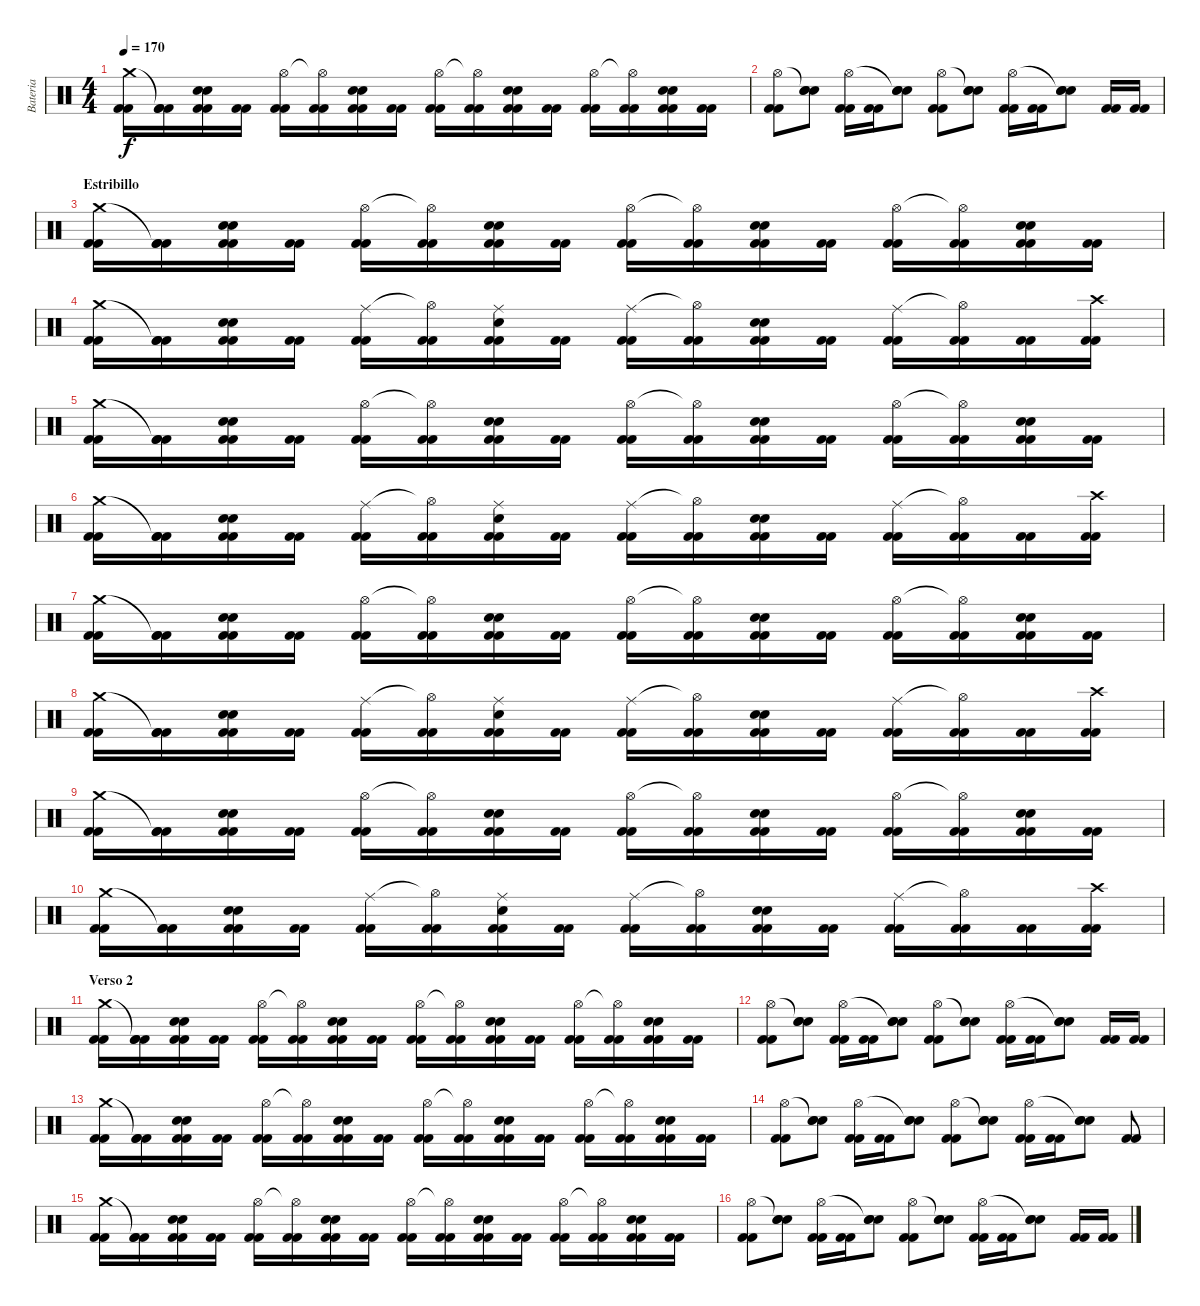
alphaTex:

\track ("Bateria" "Bateria") {instrument percussion}
\staff {score}
\articulation defaults
\ts (4 4)
\tempo 170
\clef neutral
\ks c
("Kick (hit) 2" "Kick (hit) 2" "Crash medium (hit)").16{dy f} ("Kick (hit) 2" "Kick (hit) 2" "Kick (hit) 2"{t}).16 ("Kick (hit) 2" "Kick (hit) 2" "Electric Snare (hit)" "Electric Snare (hit)").16 ("Kick (hit) 2" "Kick (hit) 2").16 ("Kick (hit) 2" "Kick (hit) 2" "Hi-Hat (open)").16 ("Kick (hit) 2" "Kick (hit) 2" "Hi-Hat (open)"{t}).16 ("Kick (hit) 2" "Kick (hit) 2" "Electric Snare (hit)" "Electric Snare (hit)").16 ("Kick (hit) 2" "Kick (hit) 2").16 ("Kick (hit) 2" "Kick (hit) 2" "Hi-Hat (open)").16 ("Kick (hit) 2" "Kick (hit) 2" "Hi-Hat (open)"{t}).16 ("Kick (hit) 2" "Kick (hit) 2" "Electric Snare (hit)" "Electric Snare (hit)").16 ("Kick (hit) 2" "Kick (hit) 2").16 ("Kick (hit) 2" "Kick (hit) 2" "Hi-Hat (open)").16 ("Kick (hit) 2" "Kick (hit) 2" "Hi-Hat (open)"{t}).16 ("Kick (hit) 2" "Kick (hit) 2" "Electric Snare (hit)" "Electric Snare (hit)").16 ("Kick (hit) 2" "Kick (hit) 2").16 |
("Kick (hit) 2" "Kick (hit) 2" "Hi-Hat (open)").8 ("Electric Snare (hit)" "Electric Snare (hit)" "Snare (hit)"{t}).8 ("Kick (hit) 2" "Kick (hit) 2" "Hi-Hat (open)").16 ("Kick (hit) 2" "Kick (hit) 2").16 ("Electric Snare (hit)" "Electric Snare (hit)" "Snare (hit)"{t}).8 ("Kick (hit) 2" "Kick (hit) 2" "Hi-Hat (open)").8 ("Electric Snare (hit)" "Electric Snare (hit)" "Snare (hit)"{t}).8 ("Kick (hit) 2" "Kick (hit) 2" "Hi-Hat (open)").16 ("Kick (hit) 2" "Kick (hit) 2").16 ("Electric Snare (hit)" "Electric Snare (hit)" "Snare (hit)"{t}).8 ("Kick (hit) 2" "Kick (hit) 2").16 ("Kick (hit) 2" "Kick (hit) 2").16 |
\section ("" "Estribillo")
("Kick (hit) 2" "Kick (hit) 2" "Crash medium (hit)").16 ("Kick (hit) 2" "Kick (hit) 2" "Kick (hit) 2"{t}).16 ("Kick (hit) 2" "Kick (hit) 2" "Electric Snare (hit)" "Electric Snare (hit)").16 ("Kick (hit) 2" "Kick (hit) 2").16 ("Kick (hit) 2" "Kick (hit) 2" "Hi-Hat (open)").16 ("Kick (hit) 2" "Kick (hit) 2" "Hi-Hat (open)"{t}).16 ("Kick (hit) 2" "Kick (hit) 2" "Electric Snare (hit)" "Electric Snare (hit)").16 ("Kick (hit) 2" "Kick (hit) 2").16 ("Kick (hit) 2" "Kick (hit) 2" "Hi-Hat (open)").16 ("Kick (hit) 2" "Kick (hit) 2" "Hi-Hat (open)"{t}).16 ("Kick (hit) 2" "Kick (hit) 2" "Electric Snare (hit)" "Electric Snare (hit)").16 ("Kick (hit) 2" "Kick (hit) 2").16 ("Kick (hit) 2" "Kick (hit) 2" "Hi-Hat (open)").16 ("Kick (hit) 2" "Kick (hit) 2" "Hi-Hat (open)"{t}).16 ("Kick (hit) 2" "Kick (hit) 2" "Electric Snare (hit)" "Electric Snare (hit)").16 ("Kick (hit) 2" "Kick (hit) 2").16 |
("Kick (hit) 2" "Kick (hit) 2" "Crash medium (hit)").16 ("Kick (hit) 2" "Kick (hit) 2" "Kick (hit) 2"{t}).16 ("Kick (hit) 2" "Kick (hit) 2" "Electric Snare (hit)" "Electric Snare (hit)").16 ("Kick (hit) 2" "Kick (hit) 2").16 ("Kick (hit) 2" "Kick (hit) 2" "Ride (middle)").16 ("Kick (hit) 2" "Kick (hit) 2" "Hi-Hat (open)"{t}).16 ("Kick (hit) 2" "Kick (hit) 2" "Electric Snare (hit)" "Ride (middle)").16 ("Kick (hit) 2" "Kick (hit) 2").16 ("Kick (hit) 2" "Kick (hit) 2" "Ride (middle)").16 ("Kick (hit) 2" "Kick (hit) 2" "Hi-Hat (open)"{t}).16 ("Kick (hit) 2" "Kick (hit) 2" "Electric Snare (hit)" "Electric Snare (hit)").16 ("Kick (hit) 2" "Kick (hit) 2").16 ("Kick (hit) 2" "Kick (hit) 2" "Ride (middle)").16 ("Kick (hit) 2" "Kick (hit) 2" "Hi-Hat (open)"{t}).16 ("Kick (hit) 2" "Kick (hit) 2").16 ("Kick (hit) 2" "Kick (hit) 2" "Crash high (hit)").16 |
("Kick (hit) 2" "Kick (hit) 2" "Crash medium (hit)").16 ("Kick (hit) 2" "Kick (hit) 2" "Kick (hit) 2"{t}).16 ("Kick (hit) 2" "Kick (hit) 2" "Electric Snare (hit)" "Electric Snare (hit)").16 ("Kick (hit) 2" "Kick (hit) 2").16 ("Kick (hit) 2" "Kick (hit) 2" "Hi-Hat (open)").16 ("Kick (hit) 2" "Kick (hit) 2" "Hi-Hat (open)"{t}).16 ("Kick (hit) 2" "Kick (hit) 2" "Electric Snare (hit)" "Electric Snare (hit)").16 ("Kick (hit) 2" "Kick (hit) 2").16 ("Kick (hit) 2" "Kick (hit) 2" "Hi-Hat (open)").16 ("Kick (hit) 2" "Kick (hit) 2" "Hi-Hat (open)"{t}).16 ("Kick (hit) 2" "Kick (hit) 2" "Electric Snare (hit)" "Electric Snare (hit)").16 ("Kick (hit) 2" "Kick (hit) 2").16 ("Kick (hit) 2" "Kick (hit) 2" "Hi-Hat (open)").16 ("Kick (hit) 2" "Kick (hit) 2" "Hi-Hat (open)"{t}).16 ("Kick (hit) 2" "Kick (hit) 2" "Electric Snare (hit)" "Electric Snare (hit)").16 ("Kick (hit) 2" "Kick (hit) 2").16 |
("Kick (hit) 2" "Kick (hit) 2" "Crash medium (hit)").16 ("Kick (hit) 2" "Kick (hit) 2" "Kick (hit) 2"{t}).16 ("Kick (hit) 2" "Kick (hit) 2" "Electric Snare (hit)" "Electric Snare (hit)").16 ("Kick (hit) 2" "Kick (hit) 2").16 ("Kick (hit) 2" "Kick (hit) 2" "Ride (middle)").16 ("Kick (hit) 2" "Kick (hit) 2" "Hi-Hat (open)"{t}).16 ("Kick (hit) 2" "Kick (hit) 2" "Electric Snare (hit)" "Ride (middle)").16 ("Kick (hit) 2" "Kick (hit) 2").16 ("Kick (hit) 2" "Kick (hit) 2" "Ride (middle)").16 ("Kick (hit) 2" "Kick (hit) 2" "Hi-Hat (open)"{t}).16 ("Kick (hit) 2" "Kick (hit) 2" "Electric Snare (hit)" "Electric Snare (hit)").16 ("Kick (hit) 2" "Kick (hit) 2").16 ("Kick (hit) 2" "Kick (hit) 2" "Ride (middle)").16 ("Kick (hit) 2" "Kick (hit) 2" "Hi-Hat (open)"{t}).16 ("Kick (hit) 2" "Kick (hit) 2").16 ("Kick (hit) 2" "Kick (hit) 2" "Crash high (hit)").16 |
("Kick (hit) 2" "Kick (hit) 2" "Crash medium (hit)").16 ("Kick (hit) 2" "Kick (hit) 2" "Kick (hit) 2"{t}).16 ("Kick (hit) 2" "Kick (hit) 2" "Electric Snare (hit)" "Electric Snare (hit)").16 ("Kick (hit) 2" "Kick (hit) 2").16 ("Kick (hit) 2" "Kick (hit) 2" "Hi-Hat (open)").16 ("Kick (hit) 2" "Kick (hit) 2" "Hi-Hat (open)"{t}).16 ("Kick (hit) 2" "Kick (hit) 2" "Electric Snare (hit)" "Electric Snare (hit)").16 ("Kick (hit) 2" "Kick (hit) 2").16 ("Kick (hit) 2" "Kick (hit) 2" "Hi-Hat (open)").16 ("Kick (hit) 2" "Kick (hit) 2" "Hi-Hat (open)"{t}).16 ("Kick (hit) 2" "Kick (hit) 2" "Electric Snare (hit)" "Electric Snare (hit)").16 ("Kick (hit) 2" "Kick (hit) 2").16 ("Kick (hit) 2" "Kick (hit) 2" "Hi-Hat (open)").16 ("Kick (hit) 2" "Kick (hit) 2" "Hi-Hat (open)"{t}).16 ("Kick (hit) 2" "Kick (hit) 2" "Electric Snare (hit)" "Electric Snare (hit)").16 ("Kick (hit) 2" "Kick (hit) 2").16 |
("Kick (hit) 2" "Kick (hit) 2" "Crash medium (hit)").16 ("Kick (hit) 2" "Kick (hit) 2" "Kick (hit) 2"{t}).16 ("Kick (hit) 2" "Kick (hit) 2" "Electric Snare (hit)" "Electric Snare (hit)").16 ("Kick (hit) 2" "Kick (hit) 2").16 ("Kick (hit) 2" "Kick (hit) 2" "Ride (middle)").16 ("Kick (hit) 2" "Kick (hit) 2" "Hi-Hat (open)"{t}).16 ("Kick (hit) 2" "Kick (hit) 2" "Electric Snare (hit)" "Ride (middle)").16 ("Kick (hit) 2" "Kick (hit) 2").16 ("Kick (hit) 2" "Kick (hit) 2" "Ride (middle)").16 ("Kick (hit) 2" "Kick (hit) 2" "Hi-Hat (open)"{t}).16 ("Kick (hit) 2" "Kick (hit) 2" "Electric Snare (hit)" "Electric Snare (hit)").16 ("Kick (hit) 2" "Kick (hit) 2").16 ("Kick (hit) 2" "Kick (hit) 2" "Ride (middle)").16 ("Kick (hit) 2" "Kick (hit) 2" "Hi-Hat (open)"{t}).16 ("Kick (hit) 2" "Kick (hit) 2").16 ("Kick (hit) 2" "Kick (hit) 2" "Crash high (hit)").16 |
("Kick (hit) 2" "Kick (hit) 2" "Crash medium (hit)").16 ("Kick (hit) 2" "Kick (hit) 2" "Kick (hit) 2"{t}).16 ("Kick (hit) 2" "Kick (hit) 2" "Electric Snare (hit)" "Electric Snare (hit)").16 ("Kick (hit) 2" "Kick (hit) 2").16 ("Kick (hit) 2" "Kick (hit) 2" "Hi-Hat (open)").16 ("Kick (hit) 2" "Kick (hit) 2" "Hi-Hat (open)"{t}).16 ("Kick (hit) 2" "Kick (hit) 2" "Electric Snare (hit)" "Electric Snare (hit)").16 ("Kick (hit) 2" "Kick (hit) 2").16 ("Kick (hit) 2" "Kick (hit) 2" "Hi-Hat (open)").16 ("Kick (hit) 2" "Kick (hit) 2" "Hi-Hat (open)"{t}).16 ("Kick (hit) 2" "Kick (hit) 2" "Electric Snare (hit)" "Electric Snare (hit)").16 ("Kick (hit) 2" "Kick (hit) 2").16 ("Kick (hit) 2" "Kick (hit) 2" "Hi-Hat (open)").16 ("Kick (hit) 2" "Kick (hit) 2" "Hi-Hat (open)"{t}).16 ("Kick (hit) 2" "Kick (hit) 2" "Electric Snare (hit)" "Electric Snare (hit)").16 ("Kick (hit) 2" "Kick (hit) 2").16 |
("Kick (hit) 2" "Kick (hit) 2" "Crash medium (hit)").16 ("Kick (hit) 2" "Kick (hit) 2" "Kick (hit) 2"{t}).16 ("Kick (hit) 2" "Kick (hit) 2" "Electric Snare (hit)" "Electric Snare (hit)").16 ("Kick (hit) 2" "Kick (hit) 2").16 ("Kick (hit) 2" "Kick (hit) 2" "Ride (middle)").16 ("Kick (hit) 2" "Kick (hit) 2" "Hi-Hat (open)"{t}).16 ("Kick (hit) 2" "Kick (hit) 2" "Electric Snare (hit)" "Ride (middle)").16 ("Kick (hit) 2" "Kick (hit) 2").16 ("Kick (hit) 2" "Kick (hit) 2" "Ride (middle)").16 ("Kick (hit) 2" "Kick (hit) 2" "Hi-Hat (open)"{t}).16 ("Kick (hit) 2" "Kick (hit) 2" "Electric Snare (hit)" "Electric Snare (hit)").16 ("Kick (hit) 2" "Kick (hit) 2").16 ("Kick (hit) 2" "Kick (hit) 2" "Ride (middle)").16 ("Kick (hit) 2" "Kick (hit) 2" "Hi-Hat (open)"{t}).16 ("Kick (hit) 2" "Kick (hit) 2").16 ("Kick (hit) 2" "Kick (hit) 2" "Crash high (hit)").16 |
\section ("" "Verso 2")
("Kick (hit) 2" "Kick (hit) 2" "Crash medium (hit)").16 ("Kick (hit) 2" "Kick (hit) 2" "Kick (hit) 2"{t}).16 ("Kick (hit) 2" "Kick (hit) 2" "Electric Snare (hit)" "Electric Snare (hit)").16 ("Kick (hit) 2" "Kick (hit) 2").16 ("Kick (hit) 2" "Kick (hit) 2" "Hi-Hat (open)").16 ("Kick (hit) 2" "Kick (hit) 2" "Hi-Hat (open)"{t}).16 ("Kick (hit) 2" "Kick (hit) 2" "Electric Snare (hit)" "Electric Snare (hit)").16 ("Kick (hit) 2" "Kick (hit) 2").16 ("Kick (hit) 2" "Kick (hit) 2" "Hi-Hat (open)").16 ("Kick (hit) 2" "Kick (hit) 2" "Hi-Hat (open)"{t}).16 ("Kick (hit) 2" "Kick (hit) 2" "Electric Snare (hit)" "Electric Snare (hit)").16 ("Kick (hit) 2" "Kick (hit) 2").16 ("Kick (hit) 2" "Kick (hit) 2" "Hi-Hat (open)").16 ("Kick (hit) 2" "Kick (hit) 2" "Hi-Hat (open)"{t}).16 ("Kick (hit) 2" "Kick (hit) 2" "Electric Snare (hit)" "Electric Snare (hit)").16 ("Kick (hit) 2" "Kick (hit) 2").16 |
("Kick (hit) 2" "Kick (hit) 2" "Hi-Hat (open)").8 ("Electric Snare (hit)" "Electric Snare (hit)" "Snare (hit)"{t}).8 ("Kick (hit) 2" "Kick (hit) 2" "Hi-Hat (open)").16 ("Kick (hit) 2" "Kick (hit) 2").16 ("Electric Snare (hit)" "Electric Snare (hit)" "Snare (hit)"{t}).8 ("Kick (hit) 2" "Kick (hit) 2" "Hi-Hat (open)").8 ("Electric Snare (hit)" "Electric Snare (hit)" "Snare (hit)"{t}).8 ("Kick (hit) 2" "Kick (hit) 2" "Hi-Hat (open)").16 ("Kick (hit) 2" "Kick (hit) 2").16 ("Electric Snare (hit)" "Electric Snare (hit)" "Snare (hit)"{t}).8 ("Kick (hit) 2" "Kick (hit) 2").16 ("Kick (hit) 2" "Kick (hit) 2").16 |
("Kick (hit) 2" "Kick (hit) 2" "Crash medium (hit)").16 ("Kick (hit) 2" "Kick (hit) 2" "Kick (hit) 2"{t}).16 ("Kick (hit) 2" "Kick (hit) 2" "Electric Snare (hit)" "Electric Snare (hit)").16 ("Kick (hit) 2" "Kick (hit) 2").16 ("Kick (hit) 2" "Kick (hit) 2" "Hi-Hat (open)").16 ("Kick (hit) 2" "Kick (hit) 2" "Hi-Hat (open)"{t}).16 ("Kick (hit) 2" "Kick (hit) 2" "Electric Snare (hit)" "Electric Snare (hit)").16 ("Kick (hit) 2" "Kick (hit) 2").16 ("Kick (hit) 2" "Kick (hit) 2" "Hi-Hat (open)").16 ("Kick (hit) 2" "Kick (hit) 2" "Hi-Hat (open)"{t}).16 ("Kick (hit) 2" "Kick (hit) 2" "Electric Snare (hit)" "Electric Snare (hit)").16 ("Kick (hit) 2" "Kick (hit) 2").16 ("Kick (hit) 2" "Kick (hit) 2" "Hi-Hat (open)").16 ("Kick (hit) 2" "Kick (hit) 2" "Hi-Hat (open)"{t}).16 ("Kick (hit) 2" "Kick (hit) 2" "Electric Snare (hit)" "Electric Snare (hit)").16 ("Kick (hit) 2" "Kick (hit) 2").16 |
("Kick (hit) 2" "Kick (hit) 2" "Hi-Hat (open)").8 ("Electric Snare (hit)" "Electric Snare (hit)" "Snare (hit)"{t}).8 ("Kick (hit) 2" "Kick (hit) 2" "Hi-Hat (open)").16 ("Kick (hit) 2" "Kick (hit) 2").16 ("Electric Snare (hit)" "Electric Snare (hit)" "Snare (hit)"{t}).8 ("Kick (hit) 2" "Kick (hit) 2" "Hi-Hat (open)").8 ("Electric Snare (hit)" "Electric Snare (hit)" "Snare (hit)"{t}).8 ("Kick (hit) 2" "Kick (hit) 2" "Hi-Hat (open)").16 ("Kick (hit) 2" "Kick (hit) 2").16 ("Electric Snare (hit)" "Electric Snare (hit)" "Snare (hit)"{t}).8 ("Kick (hit) 2" "Kick (hit) 2").8 |
("Kick (hit) 2" "Kick (hit) 2" "Crash medium (hit)").16 ("Kick (hit) 2" "Kick (hit) 2" "Kick (hit) 2"{t}).16 ("Kick (hit) 2" "Kick (hit) 2" "Electric Snare (hit)" "Electric Snare (hit)").16 ("Kick (hit) 2" "Kick (hit) 2").16 ("Kick (hit) 2" "Kick (hit) 2" "Hi-Hat (open)").16 ("Kick (hit) 2" "Kick (hit) 2" "Hi-Hat (open)"{t}).16 ("Kick (hit) 2" "Kick (hit) 2" "Electric Snare (hit)" "Electric Snare (hit)").16 ("Kick (hit) 2" "Kick (hit) 2").16 ("Kick (hit) 2" "Kick (hit) 2" "Hi-Hat (open)").16 ("Kick (hit) 2" "Kick (hit) 2" "Hi-Hat (open)"{t}).16 ("Kick (hit) 2" "Kick (hit) 2" "Electric Snare (hit)" "Electric Snare (hit)").16 ("Kick (hit) 2" "Kick (hit) 2").16 ("Kick (hit) 2" "Kick (hit) 2" "Hi-Hat (open)").16 ("Kick (hit) 2" "Kick (hit) 2" "Hi-Hat (open)"{t}).16 ("Kick (hit) 2" "Kick (hit) 2" "Electric Snare (hit)" "Electric Snare (hit)").16 ("Kick (hit) 2" "Kick (hit) 2").16 |
("Kick (hit) 2" "Kick (hit) 2" "Hi-Hat (open)").8 ("Electric Snare (hit)" "Electric Snare (hit)" "Snare (hit)"{t}).8 ("Kick (hit) 2" "Kick (hit) 2" "Hi-Hat (open)").16 ("Kick (hit) 2" "Kick (hit) 2").16 ("Electric Snare (hit)" "Electric Snare (hit)" "Snare (hit)"{t}).8 ("Kick (hit) 2" "Kick (hit) 2" "Hi-Hat (open)").8 ("Electric Snare (hit)" "Electric Snare (hit)" "Snare (hit)"{t}).8 ("Kick (hit) 2" "Kick (hit) 2" "Hi-Hat (open)").16 ("Kick (hit) 2" "Kick (hit) 2").16 ("Electric Snare (hit)" "Electric Snare (hit)" "Snare (hit)"{t}).8 ("Kick (hit) 2" "Kick (hit) 2").16 ("Kick (hit) 2" "Kick (hit) 2").16
